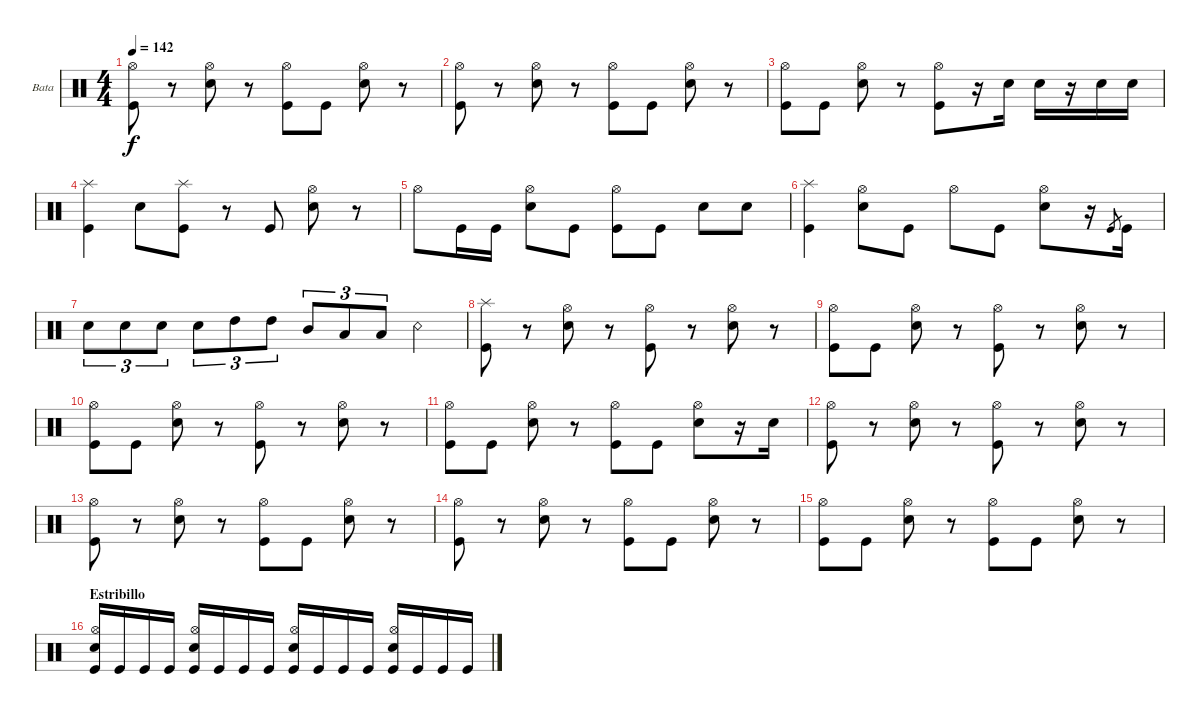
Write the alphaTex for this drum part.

\bracketExtendMode groupsimilarinstruments
\firstSystemTrackNameOrientation horizontal
\otherSystemsTrackNameOrientation horizontal
\track ("Bateria" "Bata") {instrument percussion}
\staff {score}
\articulation defaults
\ts (4 4)
\tempo 142
\clef neutral
\ks c
("Kick (hit)" "Hi-Hat (open)").8{dy f} r.8 ("Hi-Hat (open)" "Snare (hit) 2").8 r.8 ("Hi-Hat (open)" "Kick (hit)").8 "Kick (hit)".8 ("Hi-Hat (open)" "Snare (hit) 2").8 r.8 |
("Kick (hit)" "Hi-Hat (open)").8 r.8 ("Hi-Hat (open)" "Snare (hit) 2").8 r.8 ("Hi-Hat (open)" "Kick (hit)").8 "Kick (hit)".8 ("Hi-Hat (open)" "Snare (hit) 2").8 r.8 |
("Kick (hit)" "Hi-Hat (open)").8 "Kick (hit)".8 ("Hi-Hat (open)" "Snare (hit) 2").8 r.8 ("Hi-Hat (open)" "Kick (hit)").8 r.16 "Snare (hit) 2".16 "Snare (hit) 2".16 r.16 "Snare (hit) 2".16 "Snare (hit) 2".16 |
("Splash (hit)" "Kick (hit)").4 "Snare (hit) 2".8 ("Splash (hit)" "Kick (hit)").8 r.8 "Kick (hit)".8 ("Snare (hit) 2" "Hi-Hat (open)").8 r.8 |
"Hi-Hat (open)".8 "Kick (hit)".16 "Kick (hit)".16 ("Snare (hit) 2" "Hi-Hat (open)").8 "Kick (hit)".8 ("Kick (hit)" "Hi-Hat (open)").8 "Kick (hit)".8 "Snare (hit) 2".8 "Snare (hit) 2".8 |
("Splash (hit)" "Kick (hit)").4 ("Snare (hit) 2" "Hi-Hat (open)").8 "Kick (hit)".8 "Hi-Hat (open)".8 "Kick (hit)".8 ("Snare (hit) 2" "Hi-Hat (open)").8 r.16 "Kick (hit)".8{gr} "Kick (hit)".16 |
"Snare (hit) 2".8{tu (3 2)} "Snare (hit) 2".8{tu (3 2)} "Snare (hit) 2".8{tu (3 2)} "Snare (hit) 2".8{tu (3 2)} "High Tom (hit)".8{tu (3 2)} "High Tom (hit)".8{tu (3 2)} "Mid Tom (hit)".8{tu (3 2)} "Low Tom (hit)".8{tu (3 2)} "Low Tom (hit)".8{tu (3 2)} "Snare (rim shot)".4 |
("Kick (hit)" "Splash (hit)").8 r.8 ("Hi-Hat (open)" "Snare (hit) 2").8 r.8 ("Hi-Hat (open)" "Kick (hit)").8 r.8 ("Hi-Hat (open)" "Snare (hit) 2").8 r.8 |
("Kick (hit)" "Hi-Hat (open)").8 "Kick (hit)".8 ("Hi-Hat (open)" "Snare (hit) 2").8 r.8 ("Hi-Hat (open)" "Kick (hit)").8 r.8 ("Hi-Hat (open)" "Snare (hit) 2").8 r.8 |
("Kick (hit)" "Hi-Hat (open)").8 "Kick (hit)".8 ("Hi-Hat (open)" "Snare (hit) 2").8 r.8 ("Hi-Hat (open)" "Kick (hit)").8 r.8 ("Hi-Hat (open)" "Snare (hit) 2").8 r.8 |
("Kick (hit)" "Hi-Hat (open)").8 "Kick (hit)".8 ("Hi-Hat (open)" "Snare (hit) 2").8 r.8 ("Hi-Hat (open)" "Kick (hit)").8 "Kick (hit)".8 ("Hi-Hat (open)" "Snare (hit) 2").8 r.16 "Snare (hit) 2".16 |
("Kick (hit)" "Hi-Hat (open)").8 r.8 ("Hi-Hat (open)" "Snare (hit) 2").8 r.8 ("Hi-Hat (open)" "Kick (hit)").8 r.8 ("Hi-Hat (open)" "Snare (hit) 2").8 r.8 |
("Kick (hit)" "Hi-Hat (open)").8 r.8 ("Hi-Hat (open)" "Snare (hit) 2").8 r.8 ("Hi-Hat (open)" "Kick (hit)").8 "Kick (hit)".8 ("Hi-Hat (open)" "Snare (hit) 2").8 r.8 |
("Kick (hit)" "Hi-Hat (open)").8 r.8 ("Hi-Hat (open)" "Snare (hit) 2").8 r.8 ("Hi-Hat (open)" "Kick (hit)").8 "Kick (hit)".8 ("Hi-Hat (open)" "Snare (hit) 2").8 r.8 |
("Kick (hit)" "Hi-Hat (open)").8 "Kick (hit)".8 ("Hi-Hat (open)" "Snare (hit) 2").8 r.8 ("Hi-Hat (open)" "Kick (hit)").8 "Kick (hit)".8 ("Hi-Hat (open)" "Snare (hit) 2").8 r.8 |
\section ("" "Estribillo")
("Kick (hit)" "Snare (hit) 2" "Hi-Hat (open)").16 "Kick (hit)".16 "Kick (hit)".16 "Kick (hit)".16 ("Kick (hit)" "Snare (hit) 2" "Hi-Hat (open)").16 "Kick (hit)".16 "Kick (hit)".16 "Kick (hit)".16 ("Kick (hit)" "Snare (hit) 2" "Hi-Hat (open)").16 "Kick (hit)".16 "Kick (hit)".16 "Kick (hit)".16 ("Kick (hit)" "Snare (hit) 2" "Hi-Hat (open)").16 "Kick (hit)".16 "Kick (hit)".16 "Kick (hit)".16
